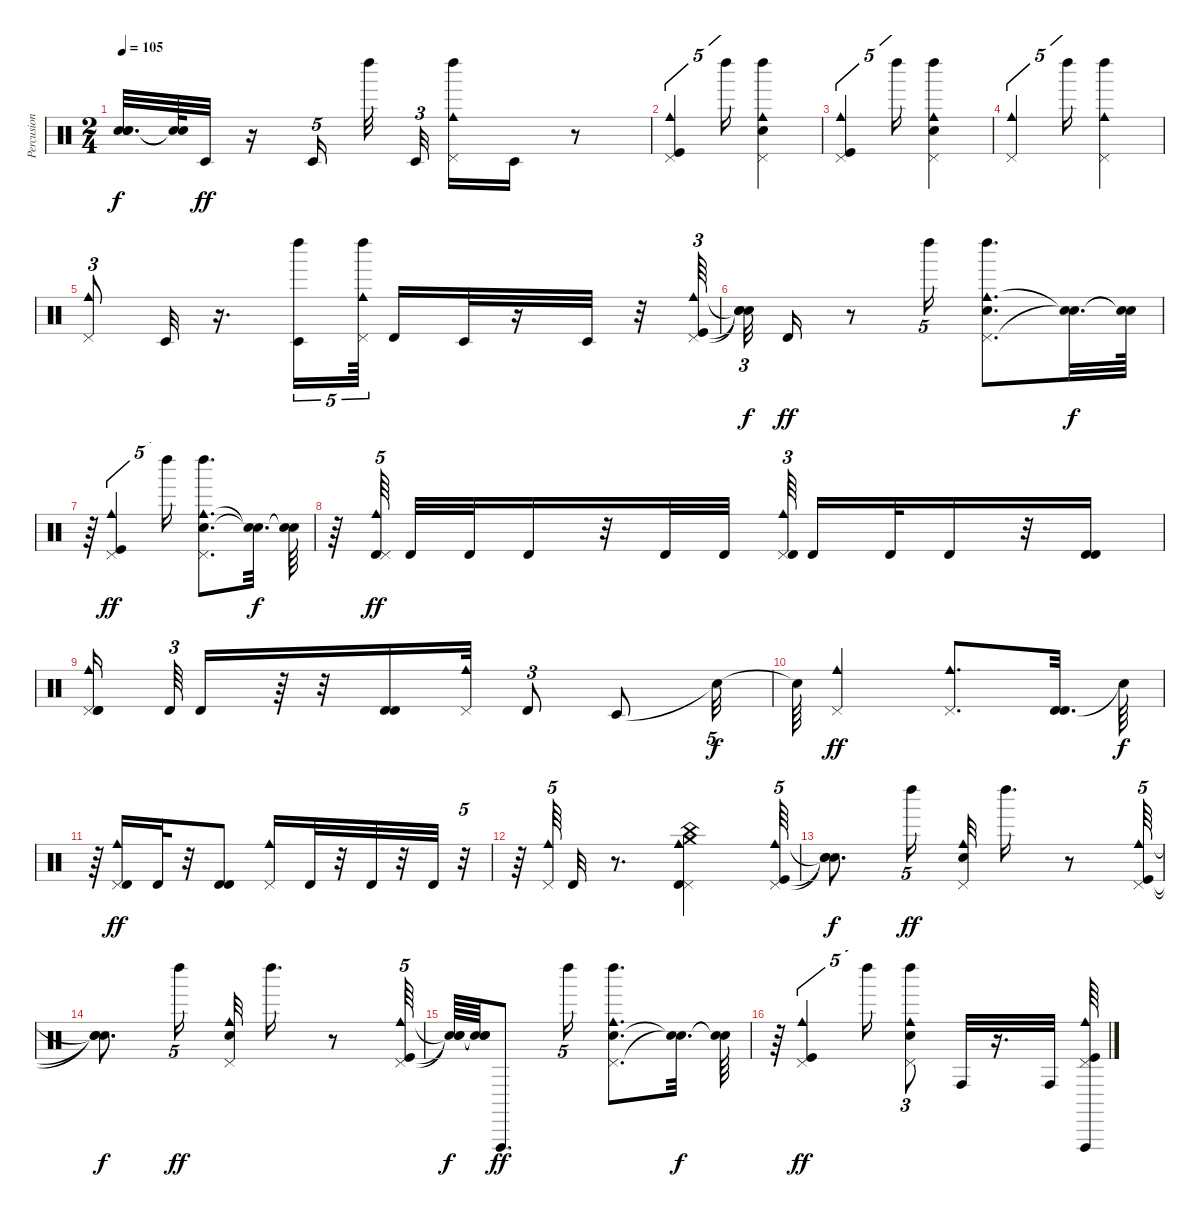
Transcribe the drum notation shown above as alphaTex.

\track ("Percusion" "Percusion") {instrument percussion}
\staff {score}
\articulation defaults
\ts (2 4)
\tempo 105
\clef neutral
\ks c
("Snare (hit)"{t} "Snare (hit)"{t} "Snare (hit)"{t}).32{d dy f} ("Snare (hit)"{t} "Snare (hit)"{t}).64 "Timbale low (hit)".32{dy ff} r.16 "Timbale low (hit)".16{tu (5 4) beam splitsecondary} "Left Maraca (hit)".32 "Timbale low (hit)".32{tu (3 2)} ("Pedal Hi-Hat (hit)" "Cowbell medium (hit)" "Left Maraca (hit)").16 "Timbale low (hit)".16 r.8 |
("Kick (hit)" "Cowbell medium (hit)" "Pedal Hi-Hat (hit)").4{tu (5 4)} "Left Maraca (hit)".16{tu (5 4)} ("Electric Snare (hit)" "Cowbell medium (hit)" "Pedal Hi-Hat (hit)" "Left Maraca (hit)").4 |
("Pedal Hi-Hat (hit)" "Kick (hit)" "Cowbell medium (hit)").4{tu (5 4)} "Left Maraca (hit)".16{tu (5 4)} ("Pedal Hi-Hat (hit)" "Snare (hit) 2" "Cowbell medium (hit)" "Left Maraca (hit)").4 |
("Cowbell medium (hit)" "Pedal Hi-Hat (hit)").4{tu (5 4)} "Left Maraca (hit)".16{tu (5 4)} ("Cowbell medium (hit)" "Pedal Hi-Hat (hit)" "Left Maraca (hit)").4 |
("Pedal Hi-Hat (hit)" "Cowbell medium (hit)").8{tu (3 2)} "Timbale low (hit)".32 r.16{d} ("Timbale low (hit)" "Left Maraca (hit)").16{tu (5 4)} ("Pedal Hi-Hat (hit)" "Cowbell medium (hit)" "Left Maraca (hit)").64{tu (5 4) beam splitsecondary} "Timbale high (hit)".16 "Timbale low (hit)".32 r.16 "Timbale low (hit)".32 r.32 ("Kick (hit)" "Cowbell medium (hit)" "Pedal Hi-Hat (hit)").64{tu (3 2)} |
("Snare (hit)"{t} "Snare (hit)"{t} "Snare (hit)"{t}).32{tu (3 2) dy f} "Timbale high (hit)".16{dy ff} r.8 "Left Maraca (hit)".16{tu (5 4)} ("Pedal Hi-Hat (hit)" "Cowbell medium (hit)" "Electric Snare (hit)" "Left Maraca (hit)").8{d} ("Snare (hit)"{t} "Snare (hit)"{t}).32{d dy f} ("Snare (hit)"{t} "Snare (hit)"{t}).64 |
r.64 ("Pedal Hi-Hat (hit)" "Cowbell medium (hit)" "Kick (hit)").4{tu (5 4) dy ff} "Left Maraca (hit)".16{tu (5 4)} ("Electric Snare (hit)" "Cowbell medium (hit)" "Pedal Hi-Hat (hit)" "Left Maraca (hit)").8{d} ("Snare (hit)"{t} "Snare (hit)"{t}).32{d dy f} ("Snare (hit)"{t} "Snare (hit)"{t}).64 |
r.64 ("Cowbell medium (hit)" "Timbale high (hit)" "Pedal Hi-Hat (hit)").64{tu (5 4) dy ff beam splitsecondary} "Timbale high (hit)".32 "Timbale high (hit)".32 "Timbale high (hit)".16 r.32 "Timbale high (hit)".32 "Timbale high (hit)".32{beam splitsecondary} ("Pedal Hi-Hat (hit)" "Timbale high (hit)" "Cowbell medium (hit)").64{tu (3 2)} "Timbale high (hit)".16 "Timbale high (hit)".32 "Timbale high (hit)".16 r.32 ("Timbale high (hit)" "Timbale high (hit)").16 |
("Pedal Hi-Hat (hit)" "Cowbell medium (hit)" "Timbale high (hit)" "Timbale high (hit)").16{beam splitsecondary} "Timbale high (hit)".64{tu (3 2)} "Timbale high (hit)".16 r.64 r.32 ("Timbale high (hit)" "Timbale high (hit)").16 ("Pedal Hi-Hat (hit)" "Cowbell medium (hit)").32 "Timbale high (hit)".8{tu (3 2)} "Timbale low (hit)".8 "Snare (hit)"{t}.32{tu (5 4) dy f} |
"Snare (hit)"{t}.64 ("Pedal Hi-Hat (hit)" "Cowbell medium (hit)").4{dy ff} ("Pedal Hi-Hat (hit)" "Cowbell medium (hit)").8{d} ("Timbale high (hit)" "Timbale high (hit)").32{d} "Snare (hit)"{t}.64{dy f} |
r.64 ("Pedal Hi-Hat (hit)" "Cowbell medium (hit)" "Timbale high (hit)").16{dy ff} "Timbale high (hit)".32 r.32 ("Timbale high (hit)" "Timbale high (hit)").8 ("Pedal Hi-Hat (hit)" "Cowbell medium (hit)").16 "Timbale high (hit)".32 r.32 "Timbale high (hit)".32 r.32 "Timbale high (hit)".32 r.32{tu (5 4)} |
r.64 ("Pedal Hi-Hat (hit)" "Cowbell medium (hit)").64{tu (5 4)} "Timbale high (hit)".32 r.8{d} ("Pedal Hi-Hat (hit)" "Crash medium (hit)" "Cowbell medium (hit)" "Timbale high (hit)" "China (hit)").4 ("Pedal Hi-Hat (hit)" "Cowbell medium (hit)" "Kick (hit)").64{tu (5 4)} |
("Snare (hit)"{t} "Snare (hit)"{t} "Snare (hit)"{t}).8{d dy f} "Left Maraca (hit)".16{tu (5 4) dy ff} ("Pedal Hi-Hat (hit)" "Cowbell medium (hit)" "Electric Snare (hit)").32 "Left Maraca (hit)".16{d} r.8 ("Pedal Hi-Hat (hit)" "Cowbell medium (hit)" "Kick (hit)").64{tu (5 4)} |
("Snare (hit)"{t} "Snare (hit)"{t} "Snare (hit)"{t}).8{d dy f} "Left Maraca (hit)".16{tu (5 4) dy ff} ("Pedal Hi-Hat (hit)" "Electric Snare (hit)" "Cowbell medium (hit)").32 "Left Maraca (hit)".16{d} r.8 ("Pedal Hi-Hat (hit)" "Cowbell medium (hit)" "Kick (hit)").64{tu (5 4)} |
("Snare (hit)"{t} "Snare (hit)"{t} "Snare (hit)"{t}).64{dy f} ("Snare (hit)"{t} "Snare (hit)"{t} "Snare (hit)"{t}).64 "Vibraslap (hit)".8{d dy ff} "Left Maraca (hit)".16{tu (5 4)} ("Pedal Hi-Hat (hit)" "Electric Snare (hit)" "Cowbell medium (hit)" "Left Maraca (hit)").8{d} ("Snare (hit)"{t} "Snare (hit)"{t}).32{d dy f} ("Snare (hit)"{t} "Snare (hit)"{t}).64 |
r.64 ("Pedal Hi-Hat (hit)" "Kick (hit)" "Cowbell medium (hit)").4{tu (5 4) dy ff} "Left Maraca (hit)".16{tu (5 4)} ("Pedal Hi-Hat (hit)" "Cowbell medium (hit)" "Electric Snare (hit)" "Left Maraca (hit)").8{tu (3 2)} "Conga high (hit)".32 r.16{d} "Conga high (hit)".32 ("Vibraslap (hit)" "Pedal Hi-Hat (hit)" "Cowbell medium (hit)" "Kick (hit)").64
